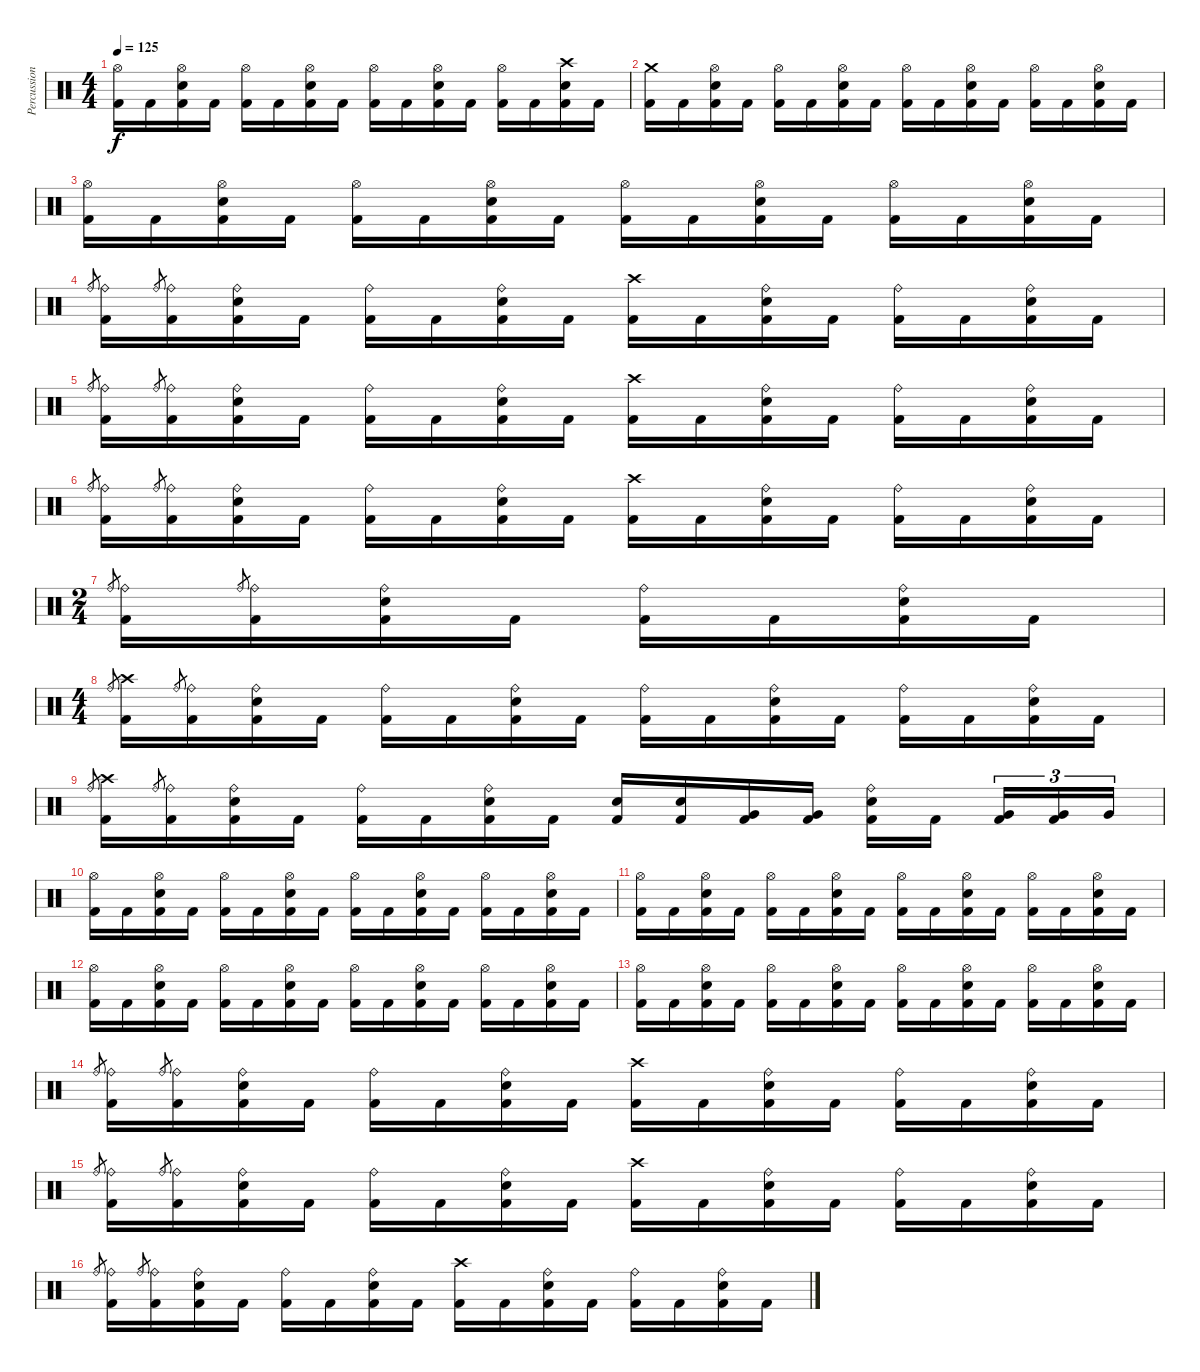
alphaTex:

\track ("Percussion" "Percussion") {instrument percussion}
\staff {score}
\articulation defaults
\ts (4 4)
\tempo 125
\clef neutral
\ks c
("Hi-Hat (open)" "Kick (hit) 2").16{dy f} "Kick (hit) 2".16 ("Hi-Hat (open)" "Snare (hit) 2" "Kick (hit) 2").16 "Kick (hit) 2".16 ("Hi-Hat (open)" "Kick (hit) 2").16 "Kick (hit) 2".16 ("Hi-Hat (open)" "Snare (hit) 2" "Kick (hit) 2").16 "Kick (hit) 2".16 ("Hi-Hat (open)" "Kick (hit) 2").16 "Kick (hit) 2".16 ("Hi-Hat (open)" "Snare (hit) 2" "Kick (hit) 2").16 "Kick (hit) 2".16 ("Hi-Hat (open)" "Kick (hit) 2").16 "Kick (hit) 2".16 ("Crash high (hit)" "Snare (hit) 2" "Kick (hit) 2").16 "Kick (hit) 2".16 |
("Crash medium (hit)" "Kick (hit) 2").16 "Kick (hit) 2".16 ("Hi-Hat (open)" "Snare (hit) 2" "Kick (hit) 2").16 "Kick (hit) 2".16 ("Hi-Hat (open)" "Kick (hit) 2").16 "Kick (hit) 2".16 ("Hi-Hat (open)" "Snare (hit) 2" "Kick (hit) 2").16 "Kick (hit) 2".16 ("Hi-Hat (open)" "Kick (hit) 2").16 "Kick (hit) 2".16 ("Hi-Hat (open)" "Snare (hit) 2" "Kick (hit) 2").16 "Kick (hit) 2".16 ("Hi-Hat (open)" "Kick (hit) 2").16 "Kick (hit) 2".16 ("Hi-Hat (open)" "Snare (hit) 2" "Kick (hit) 2").16 "Kick (hit) 2".16 |
("Hi-Hat (open)" "Kick (hit) 2").16 "Kick (hit) 2".16 ("Hi-Hat (open)" "Snare (hit) 2" "Kick (hit) 2").16 "Kick (hit) 2".16 ("Hi-Hat (open)" "Kick (hit) 2").16 "Kick (hit) 2".16 ("Hi-Hat (open)" "Snare (hit) 2" "Kick (hit) 2").16 "Kick (hit) 2".16 ("Hi-Hat (open)" "Kick (hit) 2").16 "Kick (hit) 2".16 ("Hi-Hat (open)" "Snare (hit) 2" "Kick (hit) 2").16 "Kick (hit) 2".16 ("Hi-Hat (open)" "Kick (hit) 2").16 "Kick (hit) 2".16 ("Hi-Hat (open)" "Snare (hit) 2" "Kick (hit) 2").16 "Kick (hit) 2".16 |
"Ride (bell)".8{gr} ("Ride (bell)" "Kick (hit) 2").16 "Ride (bell)".8{gr} ("Ride (bell)" "Kick (hit) 2").16 ("Ride (bell)" "Snare (hit) 2" "Kick (hit) 2").16 "Kick (hit) 2".16 ("Ride (bell)" "Kick (hit) 2").16 "Kick (hit) 2".16 ("Ride (bell)" "Snare (hit) 2" "Kick (hit) 2").16 "Kick (hit) 2".16 ("Crash high (hit)" "Kick (hit) 2").16 "Kick (hit) 2".16 ("Ride (bell)" "Snare (hit) 2" "Kick (hit) 2").16 "Kick (hit) 2".16 ("Ride (bell)" "Kick (hit) 2").16 "Kick (hit) 2".16 ("Ride (bell)" "Snare (hit) 2" "Kick (hit) 2").16 "Kick (hit) 2".16 |
"Ride (bell)".8{gr} ("Ride (bell)" "Kick (hit) 2").16 "Ride (bell)".8{gr} ("Ride (bell)" "Kick (hit) 2").16 ("Ride (bell)" "Snare (hit) 2" "Kick (hit) 2").16 "Kick (hit) 2".16 ("Ride (bell)" "Kick (hit) 2").16 "Kick (hit) 2".16 ("Ride (bell)" "Snare (hit) 2" "Kick (hit) 2").16 "Kick (hit) 2".16 ("Crash high (hit)" "Kick (hit) 2").16 "Kick (hit) 2".16 ("Ride (bell)" "Snare (hit) 2" "Kick (hit) 2").16 "Kick (hit) 2".16 ("Ride (bell)" "Kick (hit) 2").16 "Kick (hit) 2".16 ("Ride (bell)" "Snare (hit) 2" "Kick (hit) 2").16 "Kick (hit) 2".16 |
"Ride (bell)".8{gr} ("Ride (bell)" "Kick (hit) 2").16 "Ride (bell)".8{gr} ("Ride (bell)" "Kick (hit) 2").16 ("Ride (bell)" "Snare (hit) 2" "Kick (hit) 2").16 "Kick (hit) 2".16 ("Ride (bell)" "Kick (hit) 2").16 "Kick (hit) 2".16 ("Ride (bell)" "Snare (hit) 2" "Kick (hit) 2").16 "Kick (hit) 2".16 ("Crash high (hit)" "Kick (hit) 2").16 "Kick (hit) 2".16 ("Ride (bell)" "Snare (hit) 2" "Kick (hit) 2").16 "Kick (hit) 2".16 ("Ride (bell)" "Kick (hit) 2").16 "Kick (hit) 2".16 ("Ride (bell)" "Snare (hit) 2" "Kick (hit) 2").16 "Kick (hit) 2".16 |
\ts (2 4)
"Ride (bell)".8{gr} ("Ride (bell)" "Kick (hit) 2").16 "Ride (bell)".8{gr} ("Ride (bell)" "Kick (hit) 2").16 ("Ride (bell)" "Snare (hit) 2" "Kick (hit) 2").16 "Kick (hit) 2".16 ("Ride (bell)" "Kick (hit) 2").16 "Kick (hit) 2".16 ("Ride (bell)" "Snare (hit) 2" "Kick (hit) 2").16 "Kick (hit) 2".16 |
\ts (4 4)
"Ride (bell)".8{gr} ("Crash high (hit)" "Kick (hit) 2").16 "Ride (bell)".8{gr} ("Ride (bell)" "Kick (hit) 2").16 ("Ride (bell)" "Snare (hit) 2" "Kick (hit) 2").16 "Kick (hit) 2".16 ("Ride (bell)" "Kick (hit) 2").16 "Kick (hit) 2".16 ("Ride (bell)" "Snare (hit) 2" "Kick (hit) 2").16 "Kick (hit) 2".16 ("Ride (bell)" "Kick (hit) 2").16 "Kick (hit) 2".16 ("Ride (bell)" "Snare (hit) 2" "Kick (hit) 2").16 "Kick (hit) 2".16 ("Ride (bell)" "Kick (hit) 2").16 "Kick (hit) 2".16 ("Ride (bell)" "Snare (hit) 2" "Kick (hit) 2").16 "Kick (hit) 2".16 |
"Ride (bell)".8{gr} ("Crash high (hit)" "Kick (hit) 2").16 "Ride (bell)".8{gr} ("Ride (bell)" "Kick (hit) 2").16 ("Ride (bell)" "Snare (hit) 2" "Kick (hit) 2").16 "Kick (hit) 2".16 ("Ride (bell)" "Kick (hit) 2").16 "Kick (hit) 2".16 ("Ride (bell)" "Snare (hit) 2" "Kick (hit) 2").16 "Kick (hit) 2".16 ("Snare (hit) 2" "Kick (hit) 2").16 ("Snare (hit) 2" "Kick (hit) 2").16 ("Very Low Tom (hit)" "Kick (hit) 2").16 ("Very Low Tom (hit)" "Kick (hit) 2").16 ("Ride (bell)" "Snare (hit) 2" "Kick (hit) 2").16 "Kick (hit) 2".16 ("Very Low Tom (hit)" "Kick (hit) 2").16{tu (3 2)} ("Very Low Tom (hit)" "Kick (hit) 2").16{tu (3 2)} "Very Low Tom (hit)".16{tu (3 2)} |
("Hi-Hat (open)" "Kick (hit) 2").16 "Kick (hit) 2".16 ("Hi-Hat (open)" "Snare (hit) 2" "Kick (hit) 2").16 "Kick (hit) 2".16 ("Hi-Hat (open)" "Kick (hit) 2").16 "Kick (hit) 2".16 ("Hi-Hat (open)" "Snare (hit) 2" "Kick (hit) 2").16 "Kick (hit) 2".16 ("Hi-Hat (open)" "Kick (hit) 2").16 "Kick (hit) 2".16 ("Hi-Hat (open)" "Snare (hit) 2" "Kick (hit) 2").16 "Kick (hit) 2".16 ("Hi-Hat (open)" "Kick (hit) 2").16 "Kick (hit) 2".16 ("Hi-Hat (open)" "Snare (hit) 2" "Kick (hit) 2").16 "Kick (hit) 2".16 |
("Hi-Hat (open)" "Kick (hit) 2").16 "Kick (hit) 2".16 ("Hi-Hat (open)" "Snare (hit) 2" "Kick (hit) 2").16 "Kick (hit) 2".16 ("Hi-Hat (open)" "Kick (hit) 2").16 "Kick (hit) 2".16 ("Hi-Hat (open)" "Snare (hit) 2" "Kick (hit) 2").16 "Kick (hit) 2".16 ("Hi-Hat (open)" "Kick (hit) 2").16 "Kick (hit) 2".16 ("Hi-Hat (open)" "Snare (hit) 2" "Kick (hit) 2").16 "Kick (hit) 2".16 ("Hi-Hat (open)" "Kick (hit) 2").16 "Kick (hit) 2".16 ("Hi-Hat (open)" "Snare (hit) 2" "Kick (hit) 2").16 "Kick (hit) 2".16 |
("Hi-Hat (open)" "Kick (hit) 2").16 "Kick (hit) 2".16 ("Hi-Hat (open)" "Snare (hit) 2" "Kick (hit) 2").16 "Kick (hit) 2".16 ("Hi-Hat (open)" "Kick (hit) 2").16 "Kick (hit) 2".16 ("Hi-Hat (open)" "Snare (hit) 2" "Kick (hit) 2").16 "Kick (hit) 2".16 ("Hi-Hat (open)" "Kick (hit) 2").16 "Kick (hit) 2".16 ("Hi-Hat (open)" "Snare (hit) 2" "Kick (hit) 2").16 "Kick (hit) 2".16 ("Hi-Hat (open)" "Kick (hit) 2").16 "Kick (hit) 2".16 ("Hi-Hat (open)" "Snare (hit) 2" "Kick (hit) 2").16 "Kick (hit) 2".16 |
("Hi-Hat (open)" "Kick (hit) 2").16 "Kick (hit) 2".16 ("Hi-Hat (open)" "Snare (hit) 2" "Kick (hit) 2").16 "Kick (hit) 2".16 ("Hi-Hat (open)" "Kick (hit) 2").16 "Kick (hit) 2".16 ("Hi-Hat (open)" "Snare (hit) 2" "Kick (hit) 2").16 "Kick (hit) 2".16 ("Hi-Hat (open)" "Kick (hit) 2").16 "Kick (hit) 2".16 ("Hi-Hat (open)" "Snare (hit) 2" "Kick (hit) 2").16 "Kick (hit) 2".16 ("Hi-Hat (open)" "Kick (hit) 2").16 "Kick (hit) 2".16 ("Hi-Hat (open)" "Snare (hit) 2" "Kick (hit) 2").16 "Kick (hit) 2".16 |
"Ride (bell)".8{gr} ("Ride (bell)" "Kick (hit) 2").16 "Ride (bell)".8{gr} ("Ride (bell)" "Kick (hit) 2").16 ("Ride (bell)" "Snare (hit) 2" "Kick (hit) 2").16 "Kick (hit) 2".16 ("Ride (bell)" "Kick (hit) 2").16 "Kick (hit) 2".16 ("Ride (bell)" "Snare (hit) 2" "Kick (hit) 2").16 "Kick (hit) 2".16 ("Crash high (hit)" "Kick (hit) 2").16 "Kick (hit) 2".16 ("Ride (bell)" "Snare (hit) 2" "Kick (hit) 2").16 "Kick (hit) 2".16 ("Ride (bell)" "Kick (hit) 2").16 "Kick (hit) 2".16 ("Ride (bell)" "Snare (hit) 2" "Kick (hit) 2").16 "Kick (hit) 2".16 |
"Ride (bell)".8{gr} ("Ride (bell)" "Kick (hit) 2").16 "Ride (bell)".8{gr} ("Ride (bell)" "Kick (hit) 2").16 ("Ride (bell)" "Snare (hit) 2" "Kick (hit) 2").16 "Kick (hit) 2".16 ("Ride (bell)" "Kick (hit) 2").16 "Kick (hit) 2".16 ("Ride (bell)" "Snare (hit) 2" "Kick (hit) 2").16 "Kick (hit) 2".16 ("Crash high (hit)" "Kick (hit) 2").16 "Kick (hit) 2".16 ("Ride (bell)" "Snare (hit) 2" "Kick (hit) 2").16 "Kick (hit) 2".16 ("Ride (bell)" "Kick (hit) 2").16 "Kick (hit) 2".16 ("Ride (bell)" "Snare (hit) 2" "Kick (hit) 2").16 "Kick (hit) 2".16 |
"Ride (bell)".8{gr} ("Ride (bell)" "Kick (hit) 2").16 "Ride (bell)".8{gr} ("Ride (bell)" "Kick (hit) 2").16 ("Ride (bell)" "Snare (hit) 2" "Kick (hit) 2").16 "Kick (hit) 2".16 ("Ride (bell)" "Kick (hit) 2").16 "Kick (hit) 2".16 ("Ride (bell)" "Snare (hit) 2" "Kick (hit) 2").16 "Kick (hit) 2".16 ("Crash high (hit)" "Kick (hit) 2").16 "Kick (hit) 2".16 ("Ride (bell)" "Snare (hit) 2" "Kick (hit) 2").16 "Kick (hit) 2".16 ("Ride (bell)" "Kick (hit) 2").16 "Kick (hit) 2".16 ("Ride (bell)" "Snare (hit) 2" "Kick (hit) 2").16 "Kick (hit) 2".16
